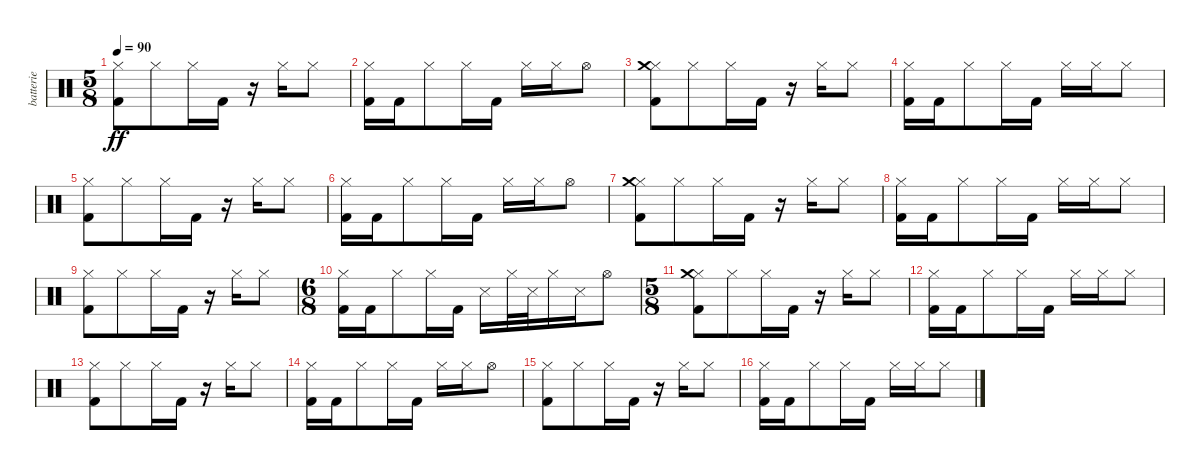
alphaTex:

\track ("batterie" "batterie") {instrument percussion}
\staff {score}
\articulation defaults
\ts (5 8)
\tempo 90
\clef neutral
\ks c
("Kick (hit) 2" "Hi-Hat (closed)").8{dy ff} "Hi-Hat (closed)".8 "Hi-Hat (closed)".16 "Kick (hit) 2".16 r.16 "Hi-Hat (closed)".16 "Hi-Hat (closed)".8 |
("Kick (hit) 2" "Hi-Hat (closed)").16 "Kick (hit) 2".16 "Hi-Hat (closed)".8 "Hi-Hat (closed)".16 "Kick (hit) 2".16 "Hi-Hat (closed)".16 "Hi-Hat (closed)".16 "Hi-Hat (open)".8 |
("Kick (hit) 2" "Hi-Hat (closed)" "Crash medium (hit)").8 "Hi-Hat (closed)".8 "Hi-Hat (closed)".16 "Kick (hit) 2".16 r.16 "Hi-Hat (closed)".16 "Hi-Hat (closed)".8 |
("Kick (hit) 2" "Hi-Hat (closed)").16 "Kick (hit) 2".16 "Hi-Hat (closed)".8 "Hi-Hat (closed)".16 "Kick (hit) 2".16 "Hi-Hat (closed)".16 "Hi-Hat (closed)".16 "Hi-Hat (closed)".8 |
("Kick (hit) 2" "Hi-Hat (closed)").8 "Hi-Hat (closed)".8 "Hi-Hat (closed)".16 "Kick (hit) 2".16 r.16 "Hi-Hat (closed)".16 "Hi-Hat (closed)".8 |
("Kick (hit) 2" "Hi-Hat (closed)").16 "Kick (hit) 2".16 "Hi-Hat (closed)".8 "Hi-Hat (closed)".16 "Kick (hit) 2".16 "Hi-Hat (closed)".16 "Hi-Hat (closed)".16 "Hi-Hat (open)".8 |
("Kick (hit) 2" "Hi-Hat (closed)" "Crash medium (hit)").8 "Hi-Hat (closed)".8 "Hi-Hat (closed)".16 "Kick (hit) 2".16 r.16 "Hi-Hat (closed)".16 "Hi-Hat (closed)".8 |
("Kick (hit) 2" "Hi-Hat (closed)").16 "Kick (hit) 2".16 "Hi-Hat (closed)".8 "Hi-Hat (closed)".16 "Kick (hit) 2".16 "Hi-Hat (closed)".16 "Hi-Hat (closed)".16 "Hi-Hat (closed)".8 |
("Kick (hit) 2" "Hi-Hat (closed)").8 "Hi-Hat (closed)".8 "Hi-Hat (closed)".16 "Kick (hit) 2".16 r.16 "Hi-Hat (closed)".16 "Hi-Hat (closed)".8 |
\ts (6 8)
("Kick (hit) 2" "Hi-Hat (closed)").16 "Kick (hit) 2".16 "Hi-Hat (closed)".8 "Hi-Hat (closed)".16 "Kick (hit) 2".16 "Snare (side stick) 3".16 "Hi-Hat (closed)".32 "Snare (side stick) 3".32 "Hi-Hat (closed)".16 "Snare (side stick) 3".16 "Hi-Hat (open)".8 |
\ts (5 8)
("Kick (hit) 2" "Hi-Hat (closed)" "Crash medium (hit)").8 "Hi-Hat (closed)".8 "Hi-Hat (closed)".16 "Kick (hit) 2".16 r.16 "Hi-Hat (closed)".16 "Hi-Hat (closed)".8 |
("Kick (hit) 2" "Hi-Hat (closed)").16 "Kick (hit) 2".16 "Hi-Hat (closed)".8 "Hi-Hat (closed)".16 "Kick (hit) 2".16 "Hi-Hat (closed)".16 "Hi-Hat (closed)".16 "Hi-Hat (closed)".8 |
("Kick (hit) 2" "Hi-Hat (closed)").8 "Hi-Hat (closed)".8 "Hi-Hat (closed)".16 "Kick (hit) 2".16 r.16 "Hi-Hat (closed)".16 "Hi-Hat (closed)".8 |
("Kick (hit) 2" "Hi-Hat (closed)").16 "Kick (hit) 2".16 "Hi-Hat (closed)".8 "Hi-Hat (closed)".16 "Kick (hit) 2".16 "Hi-Hat (closed)".16 "Hi-Hat (closed)".16 "Hi-Hat (open)".8 |
("Kick (hit) 2" "Hi-Hat (closed)").8 "Hi-Hat (closed)".8 "Hi-Hat (closed)".16 "Kick (hit) 2".16 r.16 "Hi-Hat (closed)".16 "Hi-Hat (closed)".8 |
("Kick (hit) 2" "Hi-Hat (closed)").16 "Kick (hit) 2".16 "Hi-Hat (closed)".8 "Hi-Hat (closed)".16 "Kick (hit) 2".16 "Hi-Hat (closed)".16 "Hi-Hat (closed)".16 "Hi-Hat (closed)".8
